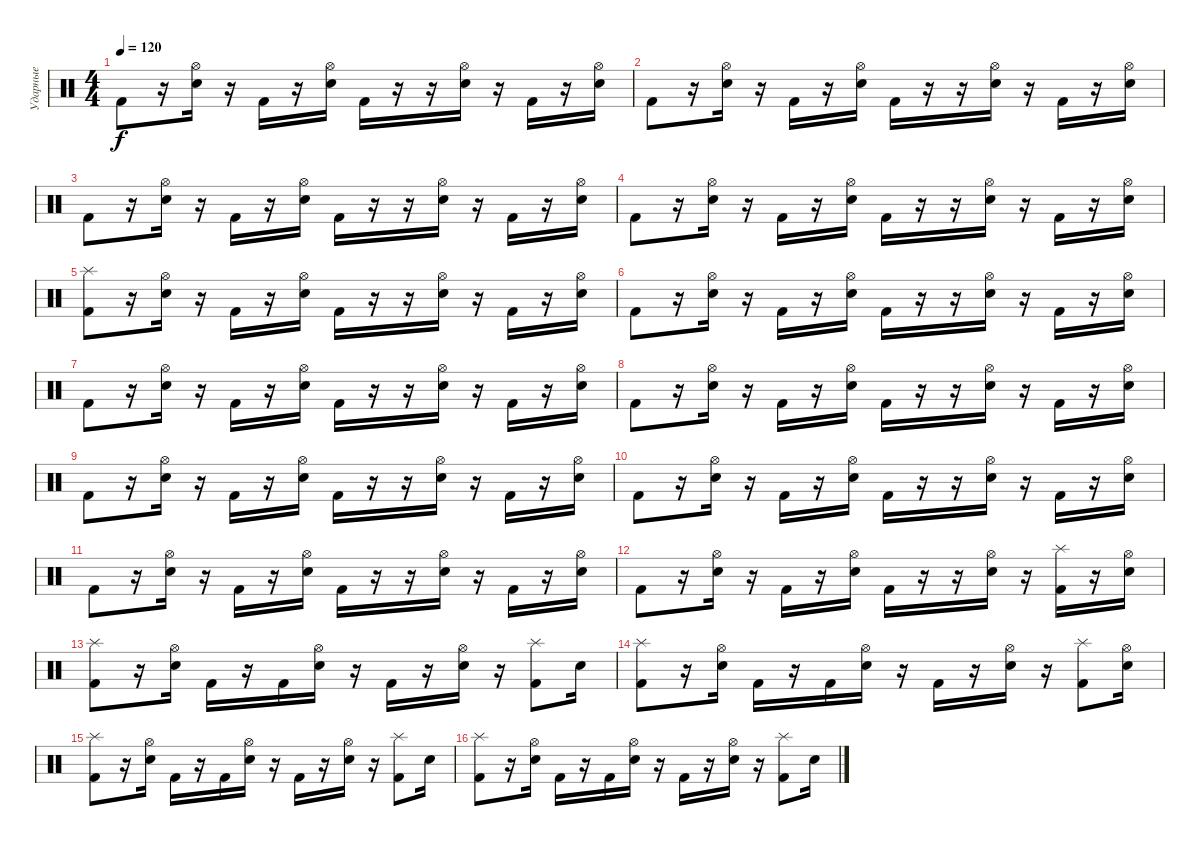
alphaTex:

\track ("Ударные" "Ударные") {instrument percussion}
\staff {score}
\articulation defaults
\ts (4 4)
\tempo 120
\clef neutral
\ks c "Kick (hit) 2".8{dy f}
r.16 ("Hi-Hat (open)" "Electric Snare (hit)").16 r.16 "Kick (hit) 2".16 r.16 ("Hi-Hat (open)" "Electric Snare (hit)").16 "Kick (hit) 2".16 r.16 r.16 ("Hi-Hat (open)" "Electric Snare (hit)").16 r.16 "Kick (hit) 2".16 r.16 ("Hi-Hat (open)" "Electric Snare (hit)").16 |
"Kick (hit) 2".8 r.16 ("Hi-Hat (open)" "Electric Snare (hit)").16 r.16 "Kick (hit) 2".16 r.16 ("Hi-Hat (open)" "Electric Snare (hit)").16 "Kick (hit) 2".16 r.16 r.16 ("Hi-Hat (open)" "Electric Snare (hit)").16 r.16 "Kick (hit) 2".16 r.16 ("Hi-Hat (open)" "Electric Snare (hit)").16 |
"Kick (hit) 2".8 r.16 ("Hi-Hat (open)" "Electric Snare (hit)").16 r.16 "Kick (hit) 2".16 r.16 ("Hi-Hat (open)" "Electric Snare (hit)").16 "Kick (hit) 2".16 r.16 r.16 ("Hi-Hat (open)" "Electric Snare (hit)").16 r.16 "Kick (hit) 2".16 r.16 ("Hi-Hat (open)" "Electric Snare (hit)").16 |
"Kick (hit) 2".8 r.16 ("Hi-Hat (open)" "Electric Snare (hit)").16 r.16 "Kick (hit) 2".16 r.16 ("Hi-Hat (open)" "Electric Snare (hit)").16 "Kick (hit) 2".16 r.16 r.16 ("Hi-Hat (open)" "Electric Snare (hit)").16 r.16 "Kick (hit) 2".16 r.16 ("Hi-Hat (open)" "Electric Snare (hit)").16 |
("Splash (hit)" "Kick (hit) 2").8 r.16 ("Hi-Hat (open)" "Electric Snare (hit)").16 r.16 "Kick (hit) 2".16 r.16 ("Hi-Hat (open)" "Electric Snare (hit)").16 "Kick (hit) 2".16 r.16 r.16 ("Hi-Hat (open)" "Electric Snare (hit)").16 r.16 "Kick (hit) 2".16 r.16 ("Hi-Hat (open)" "Electric Snare (hit)").16 |
"Kick (hit) 2".8 r.16 ("Hi-Hat (open)" "Electric Snare (hit)").16 r.16 "Kick (hit) 2".16 r.16 ("Hi-Hat (open)" "Electric Snare (hit)").16 "Kick (hit) 2".16 r.16 r.16 ("Hi-Hat (open)" "Electric Snare (hit)").16 r.16 "Kick (hit) 2".16 r.16 ("Hi-Hat (open)" "Electric Snare (hit)").16 |
"Kick (hit) 2".8 r.16 ("Hi-Hat (open)" "Electric Snare (hit)").16 r.16 "Kick (hit) 2".16 r.16 ("Hi-Hat (open)" "Electric Snare (hit)").16 "Kick (hit) 2".16 r.16 r.16 ("Hi-Hat (open)" "Electric Snare (hit)").16 r.16 "Kick (hit) 2".16 r.16 ("Hi-Hat (open)" "Electric Snare (hit)").16 |
"Kick (hit) 2".8 r.16 ("Hi-Hat (open)" "Electric Snare (hit)").16 r.16 "Kick (hit) 2".16 r.16 ("Hi-Hat (open)" "Electric Snare (hit)").16 "Kick (hit) 2".16 r.16 r.16 ("Hi-Hat (open)" "Electric Snare (hit)").16 r.16 "Kick (hit) 2".16 r.16 ("Hi-Hat (open)" "Electric Snare (hit)").16 |
"Kick (hit) 2".8 r.16 ("Hi-Hat (open)" "Electric Snare (hit)").16 r.16 "Kick (hit) 2".16 r.16 ("Hi-Hat (open)" "Electric Snare (hit)").16 "Kick (hit) 2".16 r.16 r.16 ("Hi-Hat (open)" "Electric Snare (hit)").16 r.16 "Kick (hit) 2".16 r.16 ("Hi-Hat (open)" "Electric Snare (hit)").16 |
"Kick (hit) 2".8 r.16 ("Hi-Hat (open)" "Electric Snare (hit)").16 r.16 "Kick (hit) 2".16 r.16 ("Hi-Hat (open)" "Electric Snare (hit)").16 "Kick (hit) 2".16 r.16 r.16 ("Hi-Hat (open)" "Electric Snare (hit)").16 r.16 "Kick (hit) 2".16 r.16 ("Hi-Hat (open)" "Electric Snare (hit)").16 |
"Kick (hit) 2".8 r.16 ("Hi-Hat (open)" "Electric Snare (hit)").16 r.16 "Kick (hit) 2".16 r.16 ("Hi-Hat (open)" "Electric Snare (hit)").16 "Kick (hit) 2".16 r.16 r.16 ("Hi-Hat (open)" "Electric Snare (hit)").16 r.16 "Kick (hit) 2".16 r.16 ("Hi-Hat (open)" "Electric Snare (hit)").16 |
"Kick (hit) 2".8 r.16 ("Hi-Hat (open)" "Electric Snare (hit)").16 r.16 "Kick (hit) 2".16 r.16 ("Hi-Hat (open)" "Electric Snare (hit)").16 "Kick (hit) 2".16 r.16 r.16 ("Hi-Hat (open)" "Electric Snare (hit)").16 r.16 ("Splash (hit)" "Kick (hit) 2").16 r.16 ("Hi-Hat (open)" "Electric Snare (hit)").16 |
("Splash (hit)" "Kick (hit) 2").8 r.16 ("Hi-Hat (open)" "Electric Snare (hit)").16 "Kick (hit) 2".16 r.16 "Kick (hit) 2".16 ("Hi-Hat (open)" "Electric Snare (hit)").16 r.16 "Kick (hit) 2".16 r.16 ("Hi-Hat (open)" "Electric Snare (hit)").16 r.16 ("Splash (hit)" "Kick (hit) 2").8 "Snare (hit) 2".16 |
("Splash (hit)" "Kick (hit) 2").8 r.16 ("Hi-Hat (open)" "Electric Snare (hit)").16 "Kick (hit) 2".16 r.16 "Kick (hit) 2".16 ("Hi-Hat (open)" "Electric Snare (hit)").16 r.16 "Kick (hit) 2".16 r.16 ("Hi-Hat (open)" "Electric Snare (hit)").16 r.16 ("Splash (hit)" "Kick (hit) 2").8 ("Hi-Hat (open)" "Electric Snare (hit)").16 |
("Splash (hit)" "Kick (hit) 2").8 r.16 ("Hi-Hat (open)" "Electric Snare (hit)").16 "Kick (hit) 2".16 r.16 "Kick (hit) 2".16 ("Hi-Hat (open)" "Electric Snare (hit)").16 r.16 "Kick (hit) 2".16 r.16 ("Hi-Hat (open)" "Electric Snare (hit)").16 r.16 ("Splash (hit)" "Kick (hit) 2").8 "Snare (hit) 2".16 |
("Splash (hit)" "Kick (hit) 2").8 r.16 ("Hi-Hat (open)" "Electric Snare (hit)").16 "Kick (hit) 2".16 r.16 "Kick (hit) 2".16 ("Hi-Hat (open)" "Electric Snare (hit)").16 r.16 "Kick (hit) 2".16 r.16 ("Hi-Hat (open)" "Electric Snare (hit)").16 r.16 ("Splash (hit)" "Kick (hit) 2").8 "Snare (hit) 2".16
